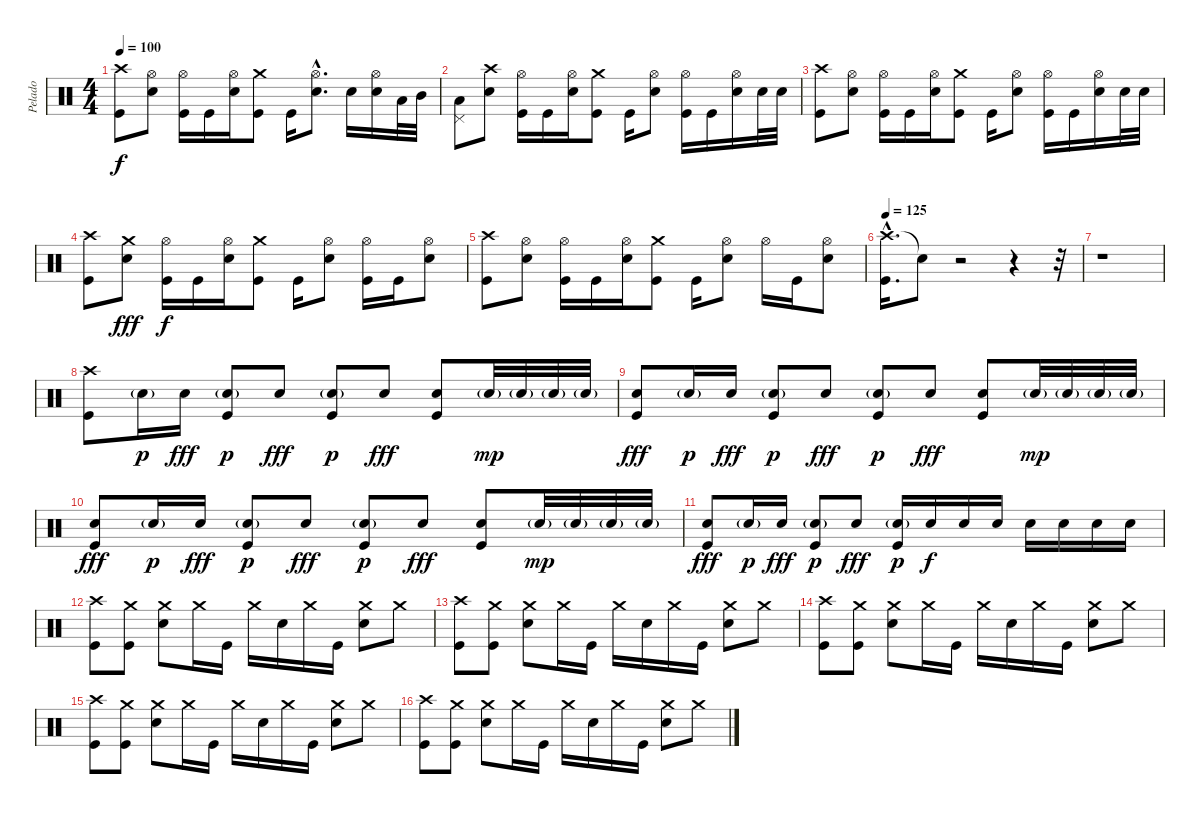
\track ("Pelado" "Pelado") {instrument percussion}
\staff {score}
\articulation defaults
\ts (4 4)
\tempo 100
\clef neutral
\ks c
("Crash high (hit)" "Kick (hit)").8{dy f} ("Hi-Hat (open)" "Electric Snare (hit)").8 ("Hi-Hat (open)" "Kick (hit)").16 "Kick (hit)".16 ("Hi-Hat (open)" "Electric Snare (hit)").16 ("Crash medium (hit)" "Kick (hit)").8 "Kick (hit)".16 ("Hi-Hat (open)"{hac} "Electric Snare (hit)"{hac}).8{d} "Electric Snare (hit)".16 ("Hi-Hat (open)" "Electric Snare (hit)").16 "Low Tom (hit)".32 "Mid Tom (hit)".32 |
("Low Tom (hit)" "Pedal Hi-Hat (hit)").8 ("Crash high (hit)" "Electric Snare (hit)").8 ("Hi-Hat (open)" "Kick (hit)").16 "Kick (hit)".16 ("Hi-Hat (open)" "Electric Snare (hit)").16 ("Crash medium (hit)" "Kick (hit)").8 "Kick (hit)".16 ("Hi-Hat (open)" "Electric Snare (hit)").8 ("Hi-Hat (open)" "Kick (hit)").16 "Kick (hit)".16 ("Hi-Hat (open)" "Electric Snare (hit)").16 "Electric Snare (hit)".32 "Electric Snare (hit)".32 |
("Crash high (hit)" "Kick (hit)").8 ("Hi-Hat (open)" "Electric Snare (hit)").8 ("Hi-Hat (open)" "Kick (hit)").16 "Kick (hit)".16 ("Hi-Hat (open)" "Electric Snare (hit)").16 ("Crash medium (hit)" "Kick (hit)").8 "Kick (hit)".16 ("Hi-Hat (open)" "Electric Snare (hit)").8 ("Hi-Hat (open)" "Kick (hit)").16 "Kick (hit)".16 ("Hi-Hat (open)" "Electric Snare (hit)").16 "Electric Snare (hit)".32 "Electric Snare (hit)".32 |
("Crash high (hit)" "Kick (hit)").8 ("Crash medium (hit)" "Electric Snare (hit)").8{dy fff} ("Hi-Hat (open)" "Kick (hit)").16{dy f} "Kick (hit)".16 ("Hi-Hat (open)" "Electric Snare (hit)").16 ("Crash medium (hit)" "Kick (hit)").8 "Kick (hit)".16 ("Hi-Hat (open)" "Electric Snare (hit)").8 ("Hi-Hat (open)" "Kick (hit)").16 "Kick (hit)".16 ("Hi-Hat (open)" "Electric Snare (hit)").8 |
("Crash high (hit)" "Kick (hit)").8 ("Hi-Hat (open)" "Electric Snare (hit)").8 ("Hi-Hat (open)" "Kick (hit)").16 "Kick (hit)".16 ("Hi-Hat (open)" "Electric Snare (hit)").16 ("Crash medium (hit)" "Kick (hit)").8 "Kick (hit)".16 ("Hi-Hat (open)" "Electric Snare (hit)").8 "Hi-Hat (open)".16 "Kick (hit)".16 ("Hi-Hat (open)" "Electric Snare (hit)").8 |
\tempo 125
("Crash high (hit)"{hac} "Kick (hit)"{hac}).16{d} "Snare (hit)"{t}.8{volume 0} r.2 r.4 r.32 |
r.1 |
("Crash high (hit)" "Kick (hit)").8{volume 13} "Electric Snare (hit)"{g}.16{dy p} "Electric Snare (hit)".16{dy fff} ("Electric Snare (hit)"{g} "Kick (hit)").8{dy p} "Electric Snare (hit)".8{dy fff} ("Electric Snare (hit)"{g} "Kick (hit)").8{dy p} "Electric Snare (hit)".8{dy fff} ("Electric Snare (hit)" "Kick (hit)").8 "Electric Snare (hit)"{g}.32{dy mp} "Electric Snare (hit)"{g}.32 "Electric Snare (hit)"{g}.32 "Electric Snare (hit)"{g}.32 |
("Electric Snare (hit)" "Kick (hit)").8{dy fff} "Electric Snare (hit)"{g}.16{dy p} "Electric Snare (hit)".16{dy fff} ("Electric Snare (hit)"{g} "Kick (hit)").8{dy p} "Electric Snare (hit)".8{dy fff} ("Electric Snare (hit)"{g} "Kick (hit)").8{dy p} "Electric Snare (hit)".8{dy fff} ("Electric Snare (hit)" "Kick (hit)").8 "Electric Snare (hit)"{g}.32{dy mp} "Electric Snare (hit)"{g}.32 "Electric Snare (hit)"{g}.32 "Electric Snare (hit)"{g}.32 |
("Electric Snare (hit)" "Kick (hit)").8{dy fff} "Electric Snare (hit)"{g}.16{dy p} "Electric Snare (hit)".16{dy fff} ("Electric Snare (hit)"{g} "Kick (hit)").8{dy p} "Electric Snare (hit)".8{dy fff} ("Electric Snare (hit)"{g} "Kick (hit)").8{dy p} "Electric Snare (hit)".8{dy fff} ("Electric Snare (hit)" "Kick (hit)").8 "Electric Snare (hit)"{g}.32{dy mp} "Electric Snare (hit)"{g}.32 "Electric Snare (hit)"{g}.32 "Electric Snare (hit)"{g}.32 |
("Electric Snare (hit)" "Kick (hit)").8{dy fff} "Electric Snare (hit)"{g}.16{dy p} "Electric Snare (hit)".16{dy fff} ("Electric Snare (hit)"{g} "Kick (hit)").8{dy p} "Electric Snare (hit)".8{dy fff} ("Electric Snare (hit)"{g} "Kick (hit)").16{dy p} "Electric Snare (hit)".16{dy f} "Electric Snare (hit)".16 "Electric Snare (hit)".16 "Electric Snare (hit)".16 "Electric Snare (hit)".16 "Electric Snare (hit)".16 "Electric Snare (hit)".16 |
("Crash high (hit)" "Kick (hit)").8 ("Crash medium (hit)" "Kick (hit)").8 ("Crash medium (hit)" "Electric Snare (hit)").8 "Crash medium (hit)".16 "Kick (hit)".16 "Crash medium (hit)".16 "Electric Snare (hit)".16 "Crash medium (hit)".16 "Kick (hit)".16 ("Crash medium (hit)" "Electric Snare (hit)").8 "Crash medium (hit)".8 |
("Crash high (hit)" "Kick (hit)").8 ("Crash medium (hit)" "Kick (hit)").8 ("Crash medium (hit)" "Electric Snare (hit)").8 "Crash medium (hit)".16 "Kick (hit)".16 "Crash medium (hit)".16 "Electric Snare (hit)".16 "Crash medium (hit)".16 "Kick (hit)".16 ("Crash medium (hit)" "Electric Snare (hit)").8 "Crash medium (hit)".8 |
("Crash high (hit)" "Kick (hit)").8 ("Crash medium (hit)" "Kick (hit)").8 ("Crash medium (hit)" "Electric Snare (hit)").8 "Crash medium (hit)".16 "Kick (hit)".16 "Crash medium (hit)".16 "Electric Snare (hit)".16 "Crash medium (hit)".16 "Kick (hit)".16 ("Crash medium (hit)" "Electric Snare (hit)").8 "Crash medium (hit)".8 |
("Crash high (hit)" "Kick (hit)").8 ("Crash medium (hit)" "Kick (hit)").8 ("Crash medium (hit)" "Electric Snare (hit)").8 "Crash medium (hit)".16 "Kick (hit)".16 "Crash medium (hit)".16 "Electric Snare (hit)".16 "Crash medium (hit)".16 "Kick (hit)".16 ("Crash medium (hit)" "Electric Snare (hit)").8 "Crash medium (hit)".8 |
("Crash high (hit)" "Kick (hit)").8 ("Crash medium (hit)" "Kick (hit)").8 ("Crash medium (hit)" "Electric Snare (hit)").8 "Crash medium (hit)".16 "Kick (hit)".16 "Crash medium (hit)".16 "Electric Snare (hit)".16 "Crash medium (hit)".16 "Kick (hit)".16 ("Crash medium (hit)" "Electric Snare (hit)").8 "Crash medium (hit)".8
